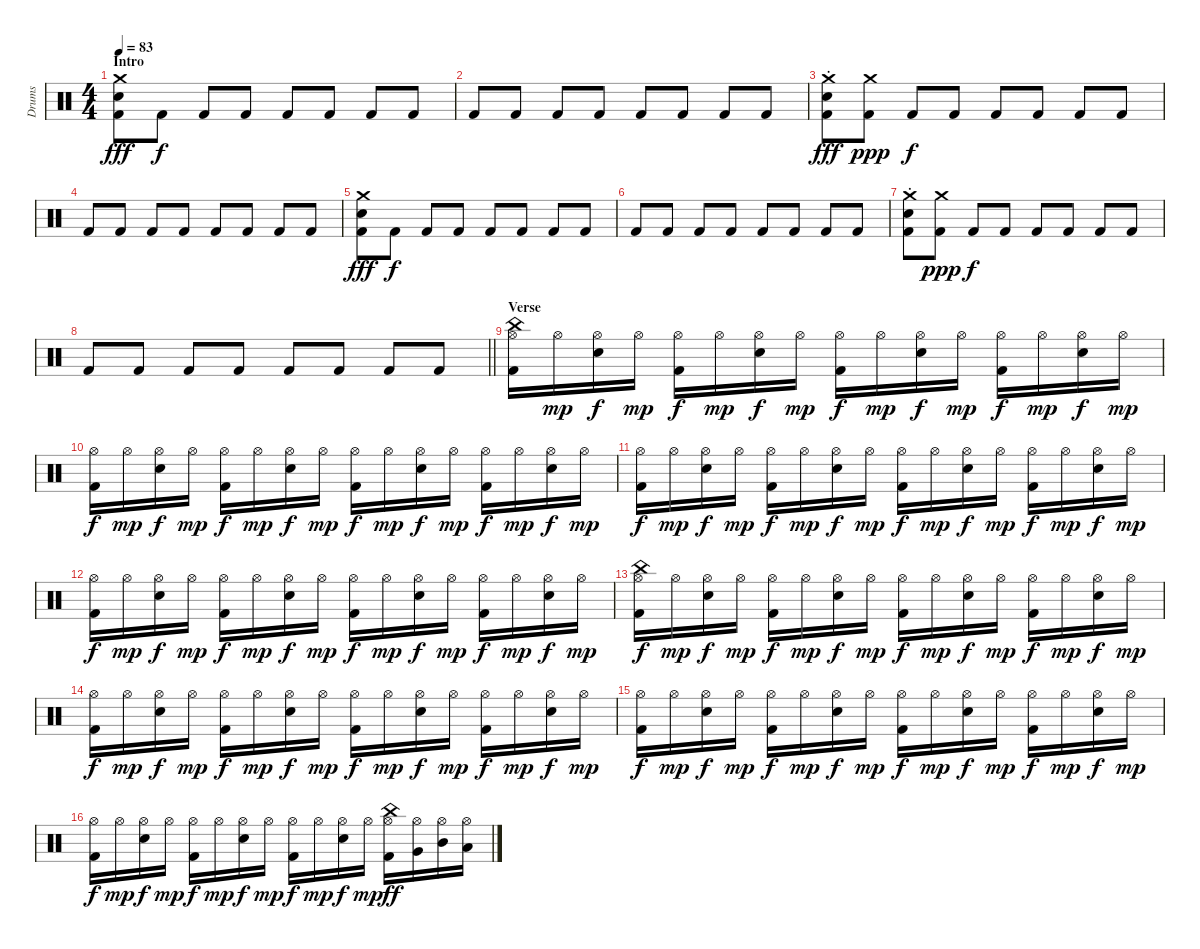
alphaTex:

\track ("Drums" "Drums") {instrument percussion}
\staff {score}
\articulation defaults
\ts (4 4)
\section ("" "Intro")
\tempo 83
\clef neutral
\ks aminor
("Kick (hit) 2" "Snare (hit) 2" "Crash medium (hit)").8{dy fff} "Kick (hit) 2".8{dy f} "Kick (hit) 2".8 "Kick (hit) 2".8 "Kick (hit) 2".8 "Kick (hit) 2".8 "Kick (hit) 2".8 "Kick (hit) 2".8 |
"Kick (hit) 2".8 "Kick (hit) 2".8 "Kick (hit) 2".8 "Kick (hit) 2".8 "Kick (hit) 2".8 "Kick (hit) 2".8 "Kick (hit) 2".8 "Kick (hit) 2".8 |
("Kick (hit) 2"{st} "Snare (hit) 2" "Crash medium (hit)"{st}).8{dy fff} ("Kick (hit) 2" "Crash medium (hit)").8{dy ppp} "Kick (hit) 2".8{dy f} "Kick (hit) 2".8 "Kick (hit) 2".8 "Kick (hit) 2".8 "Kick (hit) 2".8 "Kick (hit) 2".8 |
"Kick (hit) 2".8 "Kick (hit) 2".8 "Kick (hit) 2".8 "Kick (hit) 2".8 "Kick (hit) 2".8 "Kick (hit) 2".8 "Kick (hit) 2".8 "Kick (hit) 2".8 |
("Kick (hit) 2" "Snare (hit) 2" "Crash medium (hit)").8{dy fff} "Kick (hit) 2".8{dy f} "Kick (hit) 2".8 "Kick (hit) 2".8 "Kick (hit) 2".8 "Kick (hit) 2".8 "Kick (hit) 2".8 "Kick (hit) 2".8 |
"Kick (hit) 2".8 "Kick (hit) 2".8 "Kick (hit) 2".8 "Kick (hit) 2".8 "Kick (hit) 2".8 "Kick (hit) 2".8 "Kick (hit) 2".8 "Kick (hit) 2".8 |
("Kick (hit) 2"{st} "Snare (hit) 2" "Crash medium (hit)").8 ("Kick (hit) 2" "Crash medium (hit)").8{dy ppp} "Kick (hit) 2".8{dy f} "Kick (hit) 2".8 "Kick (hit) 2".8 "Kick (hit) 2".8 "Kick (hit) 2".8 "Kick (hit) 2".8 |
\barLineRight lightlight "Kick (hit) 2".8 "Kick (hit) 2".8 "Kick (hit) 2".8 "Kick (hit) 2".8 "Kick (hit) 2".8 "Kick (hit) 2".8 "Kick (hit) 2".8 "Kick (hit) 2".8
|
\section ("" "Verse")
("Hi-Hat (open)" "Kick (hit) 2" "China (hit)").16 "Hi-Hat (open)".16{dy mp} ("Hi-Hat (open)" "Snare (hit) 2").16{dy f} "Hi-Hat (open)".16{dy mp} ("Hi-Hat (open)" "Kick (hit) 2").16{dy f} "Hi-Hat (open)".16{dy mp} ("Hi-Hat (open)" "Snare (hit) 2").16{dy f} "Hi-Hat (open)".16{dy mp} ("Hi-Hat (open)" "Kick (hit) 2").16{dy f} "Hi-Hat (open)".16{dy mp} ("Hi-Hat (open)" "Snare (hit) 2").16{dy f} "Hi-Hat (open)".16{dy mp} ("Hi-Hat (open)" "Kick (hit) 2").16{dy f} "Hi-Hat (open)".16{dy mp} ("Hi-Hat (open)" "Snare (hit) 2").16{dy f} "Hi-Hat (open)".16{dy mp} |
("Hi-Hat (open)" "Kick (hit) 2").16{dy f} "Hi-Hat (open)".16{dy mp} ("Hi-Hat (open)" "Snare (hit) 2").16{dy f} "Hi-Hat (open)".16{dy mp} ("Hi-Hat (open)" "Kick (hit) 2").16{dy f} "Hi-Hat (open)".16{dy mp} ("Hi-Hat (open)" "Snare (hit) 2").16{dy f} "Hi-Hat (open)".16{dy mp} ("Hi-Hat (open)" "Kick (hit) 2").16{dy f} "Hi-Hat (open)".16{dy mp} ("Hi-Hat (open)" "Snare (hit) 2").16{dy f} "Hi-Hat (open)".16{dy mp} ("Hi-Hat (open)" "Kick (hit) 2").16{dy f} "Hi-Hat (open)".16{dy mp} ("Hi-Hat (open)" "Snare (hit) 2").16{dy f} "Hi-Hat (open)".16{dy mp} |
("Hi-Hat (open)" "Kick (hit) 2").16{dy f} "Hi-Hat (open)".16{dy mp} ("Hi-Hat (open)" "Snare (hit) 2").16{dy f} "Hi-Hat (open)".16{dy mp} ("Hi-Hat (open)" "Kick (hit) 2").16{dy f} "Hi-Hat (open)".16{dy mp} ("Hi-Hat (open)" "Snare (hit) 2").16{dy f} "Hi-Hat (open)".16{dy mp} ("Hi-Hat (open)" "Kick (hit) 2").16{dy f} "Hi-Hat (open)".16{dy mp} ("Hi-Hat (open)" "Snare (hit) 2").16{dy f} "Hi-Hat (open)".16{dy mp} ("Hi-Hat (open)" "Kick (hit) 2").16{dy f} "Hi-Hat (open)".16{dy mp} ("Hi-Hat (open)" "Snare (hit) 2").16{dy f} "Hi-Hat (open)".16{dy mp} |
("Hi-Hat (open)" "Kick (hit) 2").16{dy f} "Hi-Hat (open)".16{dy mp} ("Hi-Hat (open)" "Snare (hit) 2").16{dy f} "Hi-Hat (open)".16{dy mp} ("Hi-Hat (open)" "Kick (hit) 2").16{dy f} "Hi-Hat (open)".16{dy mp} ("Hi-Hat (open)" "Snare (hit) 2").16{dy f} "Hi-Hat (open)".16{dy mp} ("Hi-Hat (open)" "Kick (hit) 2").16{dy f} "Hi-Hat (open)".16{dy mp} ("Hi-Hat (open)" "Snare (hit) 2").16{dy f} "Hi-Hat (open)".16{dy mp} ("Hi-Hat (open)" "Kick (hit) 2").16{dy f} "Hi-Hat (open)".16{dy mp} ("Hi-Hat (open)" "Snare (hit) 2").16{dy f} "Hi-Hat (open)".16{dy mp} |
("Hi-Hat (open)" "Kick (hit) 2" "China (hit)").16{dy f} "Hi-Hat (open)".16{dy mp} ("Hi-Hat (open)" "Snare (hit) 2").16{dy f} "Hi-Hat (open)".16{dy mp} ("Hi-Hat (open)" "Kick (hit) 2").16{dy f} "Hi-Hat (open)".16{dy mp} ("Hi-Hat (open)" "Snare (hit) 2").16{dy f} "Hi-Hat (open)".16{dy mp} ("Hi-Hat (open)" "Kick (hit) 2").16{dy f} "Hi-Hat (open)".16{dy mp} ("Hi-Hat (open)" "Snare (hit) 2").16{dy f} "Hi-Hat (open)".16{dy mp} ("Hi-Hat (open)" "Kick (hit) 2").16{dy f} "Hi-Hat (open)".16{dy mp} ("Hi-Hat (open)" "Snare (hit) 2").16{dy f} "Hi-Hat (open)".16{dy mp} |
("Hi-Hat (open)" "Kick (hit) 2").16{dy f} "Hi-Hat (open)".16{dy mp} ("Hi-Hat (open)" "Snare (hit) 2").16{dy f} "Hi-Hat (open)".16{dy mp} ("Hi-Hat (open)" "Kick (hit) 2").16{dy f} "Hi-Hat (open)".16{dy mp} ("Hi-Hat (open)" "Snare (hit) 2").16{dy f} "Hi-Hat (open)".16{dy mp} ("Hi-Hat (open)" "Kick (hit) 2").16{dy f} "Hi-Hat (open)".16{dy mp} ("Hi-Hat (open)" "Snare (hit) 2").16{dy f} "Hi-Hat (open)".16{dy mp} ("Hi-Hat (open)" "Kick (hit) 2").16{dy f} "Hi-Hat (open)".16{dy mp} ("Hi-Hat (open)" "Snare (hit) 2").16{dy f} "Hi-Hat (open)".16{dy mp} |
("Hi-Hat (open)" "Kick (hit) 2").16{dy f} "Hi-Hat (open)".16{dy mp} ("Hi-Hat (open)" "Snare (hit) 2").16{dy f} "Hi-Hat (open)".16{dy mp} ("Hi-Hat (open)" "Kick (hit) 2").16{dy f} "Hi-Hat (open)".16{dy mp} ("Hi-Hat (open)" "Snare (hit) 2").16{dy f} "Hi-Hat (open)".16{dy mp} ("Hi-Hat (open)" "Kick (hit) 2").16{dy f} "Hi-Hat (open)".16{dy mp} ("Hi-Hat (open)" "Snare (hit) 2").16{dy f} "Hi-Hat (open)".16{dy mp} ("Hi-Hat (open)" "Kick (hit) 2").16{dy f} "Hi-Hat (open)".16{dy mp} ("Hi-Hat (open)" "Snare (hit) 2").16{dy f} "Hi-Hat (open)".16{dy mp} |
("Hi-Hat (open)" "Kick (hit) 2").16{dy f} "Hi-Hat (open)".16{dy mp} ("Hi-Hat (open)" "Snare (hit) 2").16{dy f} "Hi-Hat (open)".16{dy mp} ("Hi-Hat (open)" "Kick (hit) 2").16{dy f} "Hi-Hat (open)".16{dy mp} ("Hi-Hat (open)" "Snare (hit) 2").16{dy f} "Hi-Hat (open)".16{dy mp} ("Hi-Hat (open)" "Kick (hit) 2").16{dy f} "Hi-Hat (open)".16{dy mp} ("Hi-Hat (open)" "Snare (hit) 2").16{dy f} "Hi-Hat (open)".16{dy mp} ("Hi-Hat (open)" "Kick (hit) 2" "China (hit)").16{dy ff} ("Hi-Hat (open)" "Very Low Tom (hit)").16 ("Hi-Hat (open)" "Mid Tom (hit)").16 ("Hi-Hat (open)" "Low Tom (hit)").16
